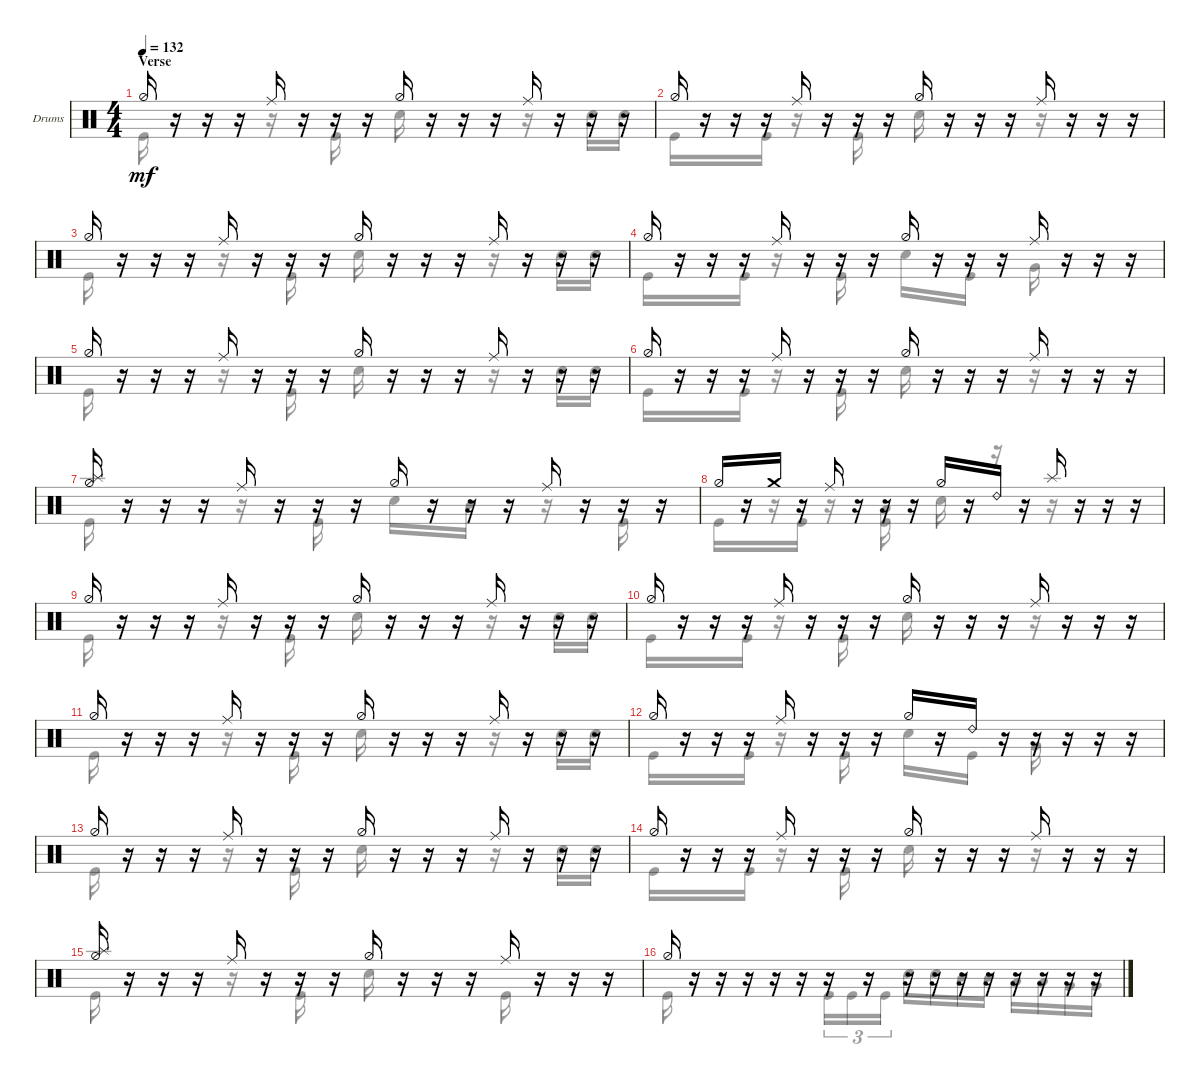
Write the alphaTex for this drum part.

\defaultSystemsLayout 4
\bracketExtendMode groupsimilarinstruments
\firstSystemTrackNameOrientation horizontal
\otherSystemsTrackNameOrientation horizontal
\track ("Drumkit" "Drums") {instrument percussion}
\staff {score}
\articulation defaults
\voice
\ts (4 4)
\section ("" "Verse")
\tempo 132
\clef neutral
\scale
0.333333
\ks c "Hi-Hat (half)".16{dy mf}
r.16 r.16 r.16 "Ride (middle)".16 r.16 r.16 r.16 "Hi-Hat (half)".16 r.16 r.16 r.16 "Ride (middle)".16 r.16 r.16 r.16 |
\scale
0.333333 "Hi-Hat (half)".16 r.16 r.16 r.16 "Ride (middle)".16 r.16 r.16 r.16 "Hi-Hat (half)".16 r.16 r.16 r.16 "Ride (middle)".16 r.16 r.16 r.16 |
\scale
0.333333 "Hi-Hat (half)".16 r.16 r.16 r.16 "Ride (middle)".16 r.16 r.16 r.16 "Hi-Hat (half)".16 r.16 r.16 r.16 "Ride (middle)".16 r.16 r.16 r.16 |
\scale
0.333333 "Hi-Hat (half)".16 r.16 r.16 r.16 "Ride (middle)".16 r.16 r.16 r.16 "Hi-Hat (half)".16 r.16 r.16 r.16 "Ride (middle)".16 r.16 r.16 r.16 |
\scale
0.333333 "Hi-Hat (half)".16 r.16 r.16 r.16 "Ride (middle)".16 r.16 r.16 r.16 "Hi-Hat (half)".16 r.16 r.16 r.16 "Ride (middle)".16 r.16 r.16 r.16 |
\scale
0.333333 "Hi-Hat (half)".16 r.16 r.16 r.16 "Ride (middle)".16 r.16 r.16 r.16 "Hi-Hat (half)".16 r.16 r.16 r.16 "Ride (middle)".16 r.16 r.16 r.16 |
\scale
0.333333 ("Hi-Hat (half)" "Splash (hit)").16 r.16 r.16 r.16 "Ride (middle)".16 r.16 r.16 r.16 "Hi-Hat (half)".16 r.16 r.16 r.16 "Ride (middle)".16 r.16 r.16 r.16 |
\scale
0.333333 "Hi-Hat (half)".16 r.16 "Crash medium (hit)".16 r.16 "Ride (middle)".16 r.16 r.16 r.16 "Hi-Hat (half)".16 r.16 "Ride (bell) 2".16 r.16 "Splash (hit)".16 r.16 r.16 r.16 |
\scale
0.333333 "Hi-Hat (half)".16 r.16 r.16 r.16 "Ride (middle)".16 r.16 r.16 r.16 "Hi-Hat (half)".16 r.16 r.16 r.16 "Ride (middle)".16 r.16 r.16 r.16 |
\scale
0.333333 "Hi-Hat (half)".16 r.16 r.16 r.16 "Ride (middle)".16 r.16 r.16 r.16 "Hi-Hat (half)".16 r.16 r.16 r.16 "Ride (middle)".16 r.16 r.16 r.16 |
\scale
0.333333 "Hi-Hat (half)".16 r.16 r.16 r.16 "Ride (middle)".16 r.16 r.16 r.16 "Hi-Hat (half)".16 r.16 r.16 r.16 "Ride (middle)".16 r.16 r.16 r.16 |
\scale
0.333333 "Hi-Hat (half)".16 r.16 r.16 r.16 "Ride (middle)".16 r.16 r.16 r.16 "Hi-Hat (half)".16 r.16 "Ride (bell) 2".16 r.16 r.16 r.16 r.16 r.16 |
\scale
0.333333 "Hi-Hat (half)".16 r.16 r.16 r.16 "Ride (middle)".16 r.16 r.16 r.16 "Hi-Hat (half)".16 r.16 r.16 r.16 "Ride (middle)".16 r.16 r.16 r.16 |
\scale
0.333333 "Hi-Hat (half)".16 r.16 r.16 r.16 "Ride (middle)".16 r.16 r.16 r.16 "Hi-Hat (half)".16 r.16 r.16 r.16 "Ride (middle)".16 r.16 r.16 r.16 |
\scale
0.333333 ("Hi-Hat (half)" "Splash (hit)").16 r.16 r.16 r.16 "Ride (middle)".16 r.16 r.16 r.16 "Hi-Hat (half)".16 r.16 r.16 r.16 "Ride (middle)".16 r.16 r.16 r.16 |
\scale
0.333333 "Hi-Hat (half)".16 r.16 r.16 r.16 r.16 r.16 r.16 r.16 r.16 r.16 r.16 r.16 r.16 r.16 r.16 r.16
\voice
\clef neutral
\ottava regular
\simile none
\scale
0.333333
\ks c "Kick (hit)".16{dy mf}
r.16 r.16 r.16 r.16 r.16 "Kick (hit)".16 r.16 "Snare (hit) 2".16 r.16 r.16 r.16 r.16 r.16 "Snare (hit) 2".16 "Snare (hit) 2".16 |
\scale
0.333333 "Kick (hit)".16 r.16 r.16 "Kick (hit)".16 r.16 r.16 "Kick (hit)".16 r.16 "Snare (hit) 2".16 r.16 r.16 r.16 r.16 r.16 r.16 r.16 |
\scale
0.333333 "Kick (hit)".16 r.16 r.16 r.16 r.16 r.16 "Kick (hit)".16 r.16 "Snare (hit) 2".16 r.16 r.16 r.16 r.16 r.16 "Snare (hit) 2".16 "Snare (hit) 2".16 |
\scale
0.333333 "Kick (hit)".16 r.16 r.16 "Kick (hit)".16 r.16 r.16 "Kick (hit)".16 r.16 "Snare (hit) 2".16 r.16 "Kick (hit)".16 r.16 "Very Low Tom (hit)".16 r.16 r.16 r.16 |
\scale
0.333333 "Kick (hit)".16 r.16 r.16 r.16 r.16 r.16 "Kick (hit)".16 r.16 "Snare (hit) 2".16 r.16 r.16 r.16 r.16 r.16 "Snare (hit) 2".16 "Snare (hit) 2".16 |
\scale
0.333333 "Kick (hit)".16 r.16 r.16 "Kick (hit)".16 r.16 r.16 "Kick (hit)".16 r.16 "Snare (hit) 2".16 r.16 r.16 r.16 r.16 r.16 r.16 r.16 |
\scale
0.333333 "Kick (hit)".16 r.16 r.16 r.16 r.16 r.16 "Kick (hit)".16 r.16 "Snare (hit) 2".16 r.16 "Mid Tom (hit)".16 r.16 r.16 r.16 "Kick (hit)".16 r.16 |
\scale
0.333333 "Kick (hit)".16 r.16 r.16 "Kick (hit)".16 r.16 r.16 ("Kick (hit)" "Low Tom (hit)").16 r.16 "Snare (hit) 2".16 r.16 r.16 r.16 r.16 r.16 r.16 r.16 |
\scale
0.333333 "Kick (hit)".16 r.16 r.16 r.16 r.16 r.16 "Kick (hit)".16 r.16 "Snare (hit) 2".16 r.16 r.16 r.16 r.16 r.16 "Snare (hit) 2".16 "Snare (hit) 2".16 |
\scale
0.333333 "Kick (hit)".16 r.16 r.16 "Kick (hit)".16 r.16 r.16 "Kick (hit)".16 r.16 "Snare (hit) 2".16 r.16 r.16 r.16 r.16 r.16 r.16 r.16 |
\scale
0.333333 "Kick (hit)".16 r.16 r.16 r.16 r.16 r.16 "Kick (hit)".16 r.16 "Snare (hit) 2".16 r.16 r.16 r.16 r.16 r.16 "Snare (hit) 2".16 "Snare (hit) 2".16 |
\scale
0.333333 "Kick (hit)".16 r.16 r.16 "Kick (hit)".16 r.16 r.16 "Kick (hit)".16 r.16 "Snare (hit) 2".16 r.16 "Kick (hit)".16 r.16 "Very Low Tom (hit)".16 r.16 r.16 r.16 |
\scale
0.333333 "Kick (hit)".16 r.16 r.16 r.16 r.16 r.16 "Kick (hit)".16 r.16 "Snare (hit) 2".16 r.16 r.16 r.16 r.16 r.16 "Snare (hit) 2".16 "Snare (hit) 2".16 |
\scale
0.333333 "Kick (hit)".16 r.16 r.16 "Kick (hit)".16 r.16 r.16 "Kick (hit)".16 r.16 "Snare (hit) 2".16 r.16 r.16 r.16 r.16 r.16 r.16 r.16 |
\scale
0.333333 "Kick (hit)".16 r.16 r.16 r.16 r.16 r.16 "Kick (hit)".16 r.16 "Snare (hit) 2".16 r.16 r.16 r.16 "Kick (hit)".16 r.16 r.16 r.16 |
\scale
0.333333 "Kick (hit)".16 r.16 r.16 r.16 r.16 r.16 "Kick (hit)".16{tu (3 2)} "Kick (hit)".16{tu (3 2)} "Kick (hit)".16{tu (3 2)} "Snare (hit) 2".16 "Snare (hit) 2".16 "Mid Tom (hit)".16 "Mid Tom (hit)".16 "Low Tom (hit)".16 "Low Tom (hit)".16 "Very Low Tom (hit)".16 "Very Low Tom (hit)".16
